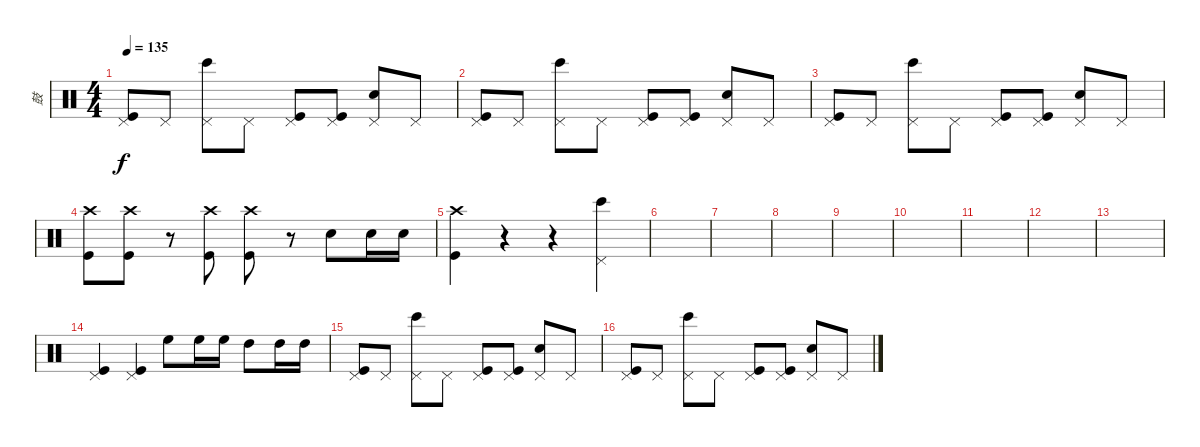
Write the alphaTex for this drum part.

\track ("鼓" "鼓") {instrument percussion}
\staff {score}
\articulation defaults
\ts (4 4)
\tempo 135
\clef neutral
\ks c
("Pedal Hi-Hat (hit)" "Kick (hit)").8{dy f} "Pedal Hi-Hat (hit)".8 ("Pedal Hi-Hat (hit)" "Bongo High (hit)").8 "Pedal Hi-Hat (hit)".8 ("Pedal Hi-Hat (hit)" "Kick (hit)").8 ("Pedal Hi-Hat (hit)" "Kick (hit)").8 ("Pedal Hi-Hat (hit)" "Snare (hit) 2").8 "Pedal Hi-Hat (hit)".8 |
("Pedal Hi-Hat (hit)" "Kick (hit)").8 "Pedal Hi-Hat (hit)".8 ("Pedal Hi-Hat (hit)" "Bongo High (hit)").8 "Pedal Hi-Hat (hit)".8 ("Pedal Hi-Hat (hit)" "Kick (hit)").8 ("Pedal Hi-Hat (hit)" "Kick (hit)").8 ("Pedal Hi-Hat (hit)" "Snare (hit) 2").8 "Pedal Hi-Hat (hit)".8 |
("Pedal Hi-Hat (hit)" "Kick (hit)").8 "Pedal Hi-Hat (hit)".8 ("Pedal Hi-Hat (hit)" "Bongo High (hit)").8 "Pedal Hi-Hat (hit)".8 ("Pedal Hi-Hat (hit)" "Kick (hit)").8 ("Pedal Hi-Hat (hit)" "Kick (hit)").8 ("Pedal Hi-Hat (hit)" "Snare (hit) 2").8 "Pedal Hi-Hat (hit)".8 |
("Crash high (hit)" "Kick (hit)").8 ("Crash high (hit)" "Kick (hit)").8 r.8 ("Crash high (hit)" "Kick (hit)").8 ("Crash high (hit)" "Kick (hit)").8 r.8 "Snare (hit) 2".8 "Snare (hit) 2".16 "Snare (hit) 2".16 |
("Crash high (hit)" "Kick (hit)").4 r.4 r.4 ("Pedal Hi-Hat (hit)" "Bongo High (hit)").4 |
|
|
|
|
|
|
|
|
("Pedal Hi-Hat (hit)" "Kick (hit)").4 ("Pedal Hi-Hat (hit)" "Kick (hit)").4 "High Floor Tom (hit)".8 "High Floor Tom (hit)".16 "High Floor Tom (hit)".16 "High Tom (hit)".8 "High Tom (hit)".16 "High Tom (hit)".16 |
("Pedal Hi-Hat (hit)" "Kick (hit)").8 "Pedal Hi-Hat (hit)".8 ("Pedal Hi-Hat (hit)" "Bongo High (hit)").8 "Pedal Hi-Hat (hit)".8 ("Pedal Hi-Hat (hit)" "Kick (hit)").8 ("Pedal Hi-Hat (hit)" "Kick (hit)").8 ("Pedal Hi-Hat (hit)" "Snare (hit) 2").8 "Pedal Hi-Hat (hit)".8 |
("Pedal Hi-Hat (hit)" "Kick (hit)").8 "Pedal Hi-Hat (hit)".8 ("Pedal Hi-Hat (hit)" "Bongo High (hit)").8 "Pedal Hi-Hat (hit)".8 ("Pedal Hi-Hat (hit)" "Kick (hit)").8 ("Pedal Hi-Hat (hit)" "Kick (hit)").8 ("Pedal Hi-Hat (hit)" "Snare (hit) 2").8 "Pedal Hi-Hat (hit)".8
